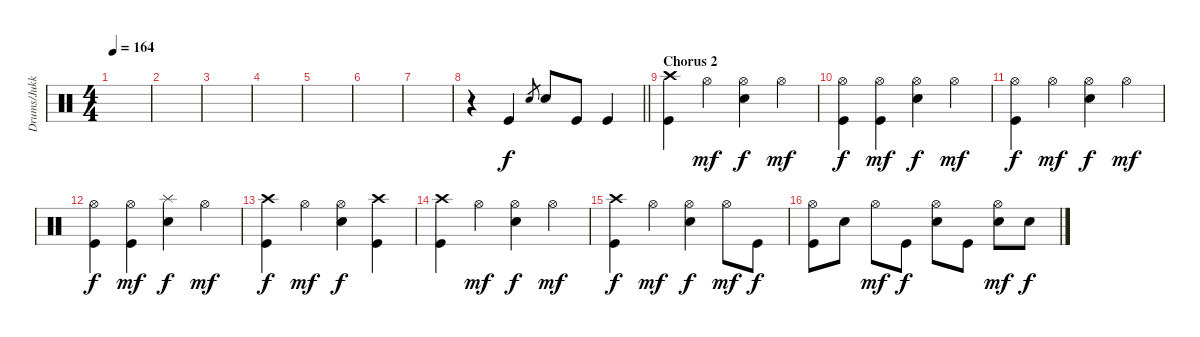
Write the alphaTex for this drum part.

\track ("Drums/Jukka" "Drums/Jukk") {instrument percussion}
\staff {score}
\articulation defaults
\ts (4 4)
\tempo 164
\clef neutral
\ks c
|
|
|
|
|
|
|
\barLineRight lightlight
r.4 "Kick (hit)".4 "Electric Snare (hit)".8{gr} "Electric Snare (hit)".8 "Kick (hit)".8 "Kick (hit)".4 |
\section ("" "Chorus 2")
("Crash high (hit)" "Kick (hit)").4 "Hi-Hat (open)".4{dy mf} ("Hi-Hat (open)" "Electric Snare (hit)").4{dy f} "Hi-Hat (open)".4{dy mf} |
("Hi-Hat (open)" "Kick (hit)").4{dy f} ("Hi-Hat (open)" "Kick (hit)").4{dy mf} ("Hi-Hat (open)" "Electric Snare (hit)").4{dy f} "Hi-Hat (open)".4{dy mf} |
("Hi-Hat (open)" "Kick (hit)").4{dy f} "Hi-Hat (open)".4{dy mf} ("Hi-Hat (open)" "Electric Snare (hit)").4{dy f} "Hi-Hat (open)".4{dy mf} |
("Hi-Hat (open)" "Kick (hit)").4{dy f} ("Hi-Hat (open)" "Kick (hit)").4{dy mf} ("Splash (hit)" "Electric Snare (hit)").4{dy f} "Hi-Hat (open)".4{dy mf} |
("Crash high (hit)" "Kick (hit)").4{dy f} "Hi-Hat (open)".4{dy mf} ("Hi-Hat (open)" "Electric Snare (hit)").4{dy f} ("Crash high (hit)" "Kick (hit)").4 |
("Crash high (hit)" "Kick (hit)").4 "Hi-Hat (open)".4{dy mf} ("Hi-Hat (open)" "Electric Snare (hit)").4{dy f} "Hi-Hat (open)".4{dy mf} |
("Crash high (hit)" "Kick (hit)").4{dy f} "Hi-Hat (open)".4{dy mf} ("Hi-Hat (open)" "Electric Snare (hit)").4{dy f} "Hi-Hat (open)".8{dy mf} "Kick (hit)".8{dy f} |
("Hi-Hat (open)" "Kick (hit)").8 "Electric Snare (hit)".8 "Hi-Hat (open)".8{dy mf} "Kick (hit)".8{dy f} ("Hi-Hat (open)" "Electric Snare (hit)").8 "Kick (hit)".8 ("Hi-Hat (open)" "Electric Snare (hit)").8{dy mf} "Electric Snare (hit)".8{dy f}
